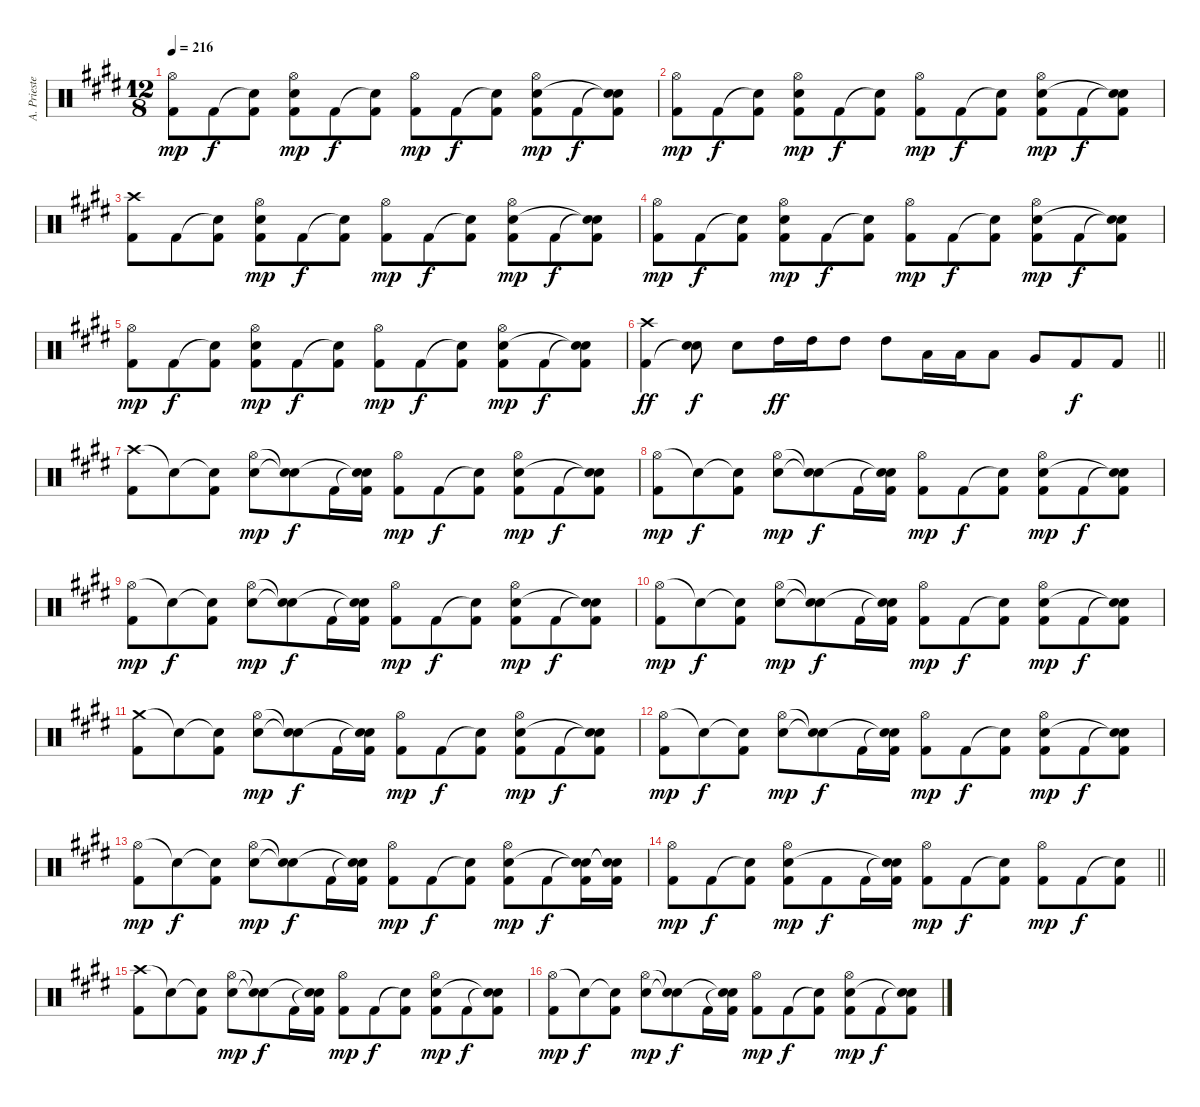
\track ("A. Priester" "A. Prieste") {instrument percussion}
\staff {score}
\articulation defaults
\ts (12 8)
\tempo 216
\clef neutral
\ks e
("Hi-Hat (open)" "Kick (hit) 2").8{dy mp} "Kick (hit) 2".8{dy f} ("Snare (hit)"{t} "Kick (hit) 2").8 ("Hi-Hat (open)" "Electric Snare (hit)" "Kick (hit) 2").8{dy mp} "Kick (hit) 2".8{dy f} ("Snare (hit)"{t} "Kick (hit) 2").8 ("Hi-Hat (open)" "Kick (hit) 2").8{dy mp} "Kick (hit) 2".8{dy f} ("Snare (hit)"{t} "Kick (hit) 2").8 ("Hi-Hat (open)" "Electric Snare (hit)" "Kick (hit) 2").8{dy mp} "Kick (hit) 2".8{dy f} ("Snare (hit)"{t} "Snare (hit)"{t} "Kick (hit) 2").8 |
("Hi-Hat (open)" "Kick (hit) 2").8{dy mp} "Kick (hit) 2".8{dy f} ("Snare (hit)"{t} "Kick (hit) 2").8 ("Hi-Hat (open)" "Electric Snare (hit)" "Kick (hit) 2").8{dy mp} "Kick (hit) 2".8{dy f} ("Snare (hit)"{t} "Kick (hit) 2").8 ("Hi-Hat (open)" "Kick (hit) 2").8{dy mp} "Kick (hit) 2".8{dy f} ("Snare (hit)"{t} "Kick (hit) 2").8 ("Hi-Hat (open)" "Electric Snare (hit)" "Kick (hit) 2").8{dy mp} "Kick (hit) 2".8{dy f} ("Snare (hit)"{t} "Snare (hit)"{t} "Kick (hit) 2").8 |
("Crash high (hit)" "Kick (hit) 2").8 "Kick (hit) 2".8 ("Snare (hit)"{t} "Kick (hit) 2").8 ("Hi-Hat (open)" "Electric Snare (hit)" "Kick (hit) 2").8{dy mp} "Kick (hit) 2".8{dy f} ("Snare (hit)"{t} "Kick (hit) 2").8 ("Hi-Hat (open)" "Kick (hit) 2").8{dy mp} "Kick (hit) 2".8{dy f} ("Snare (hit)"{t} "Kick (hit) 2").8 ("Hi-Hat (open)" "Electric Snare (hit)" "Kick (hit) 2").8{dy mp} "Kick (hit) 2".8{dy f} ("Snare (hit)"{t} "Snare (hit)"{t} "Kick (hit) 2").8 |
("Hi-Hat (open)" "Kick (hit) 2").8{dy mp} "Kick (hit) 2".8{dy f} ("Snare (hit)"{t} "Kick (hit) 2").8 ("Hi-Hat (open)" "Electric Snare (hit)" "Kick (hit) 2").8{dy mp} "Kick (hit) 2".8{dy f} ("Snare (hit)"{t} "Kick (hit) 2").8 ("Hi-Hat (open)" "Kick (hit) 2").8{dy mp} "Kick (hit) 2".8{dy f} ("Snare (hit)"{t} "Kick (hit) 2").8 ("Hi-Hat (open)" "Electric Snare (hit)" "Kick (hit) 2").8{dy mp} "Kick (hit) 2".8{dy f} ("Snare (hit)"{t} "Snare (hit)"{t} "Kick (hit) 2").8 |
("Hi-Hat (open)" "Kick (hit) 2").8{dy mp} "Kick (hit) 2".8{dy f} ("Snare (hit)"{t} "Kick (hit) 2").8 ("Hi-Hat (open)" "Electric Snare (hit)" "Kick (hit) 2").8{dy mp} "Kick (hit) 2".8{dy f} ("Snare (hit)"{t} "Kick (hit) 2").8 ("Hi-Hat (open)" "Kick (hit) 2").8{dy mp} "Kick (hit) 2".8{dy f} ("Snare (hit)"{t} "Kick (hit) 2").8 ("Hi-Hat (open)" "Electric Snare (hit)" "Kick (hit) 2").8{dy mp} "Kick (hit) 2".8{dy f} ("Snare (hit)"{t} "Snare (hit)"{t} "Kick (hit) 2").8 |
\barLineRight lightlight
("Crash high (hit)" "Kick (hit) 2").4{dy ff} ("Electric Snare (hit)" "Snare (hit)"{t}).8{dy f} "Electric Snare (hit)".8 "High Tom (hit)".16{dy ff} "High Tom (hit)".16 "High Tom (hit)".8 "High Tom (hit)".8 "Low Tom (hit)".16 "Low Tom (hit)".16 "Low Tom (hit)".8 "Very Low Tom (hit)".8 "Kick (hit) 2".8{dy f} "Kick (hit) 2".8 |
("Crash high (hit)" "Kick (hit) 2").8 "Snare (hit)"{t}.8 ("Snare (hit)"{t} "Kick (hit) 2").8 ("Hi-Hat (open)" "Electric Snare (hit)").8{dy mp} ("Snare (hit)"{t} "Snare (hit)"{t}).8{dy f} "Kick (hit) 2".16 ("Snare (hit)"{t} "Snare (hit)"{t} "Kick (hit) 2").16 ("Hi-Hat (open)" "Kick (hit) 2").8{dy mp} "Kick (hit) 2".8{dy f} ("Snare (hit)"{t} "Kick (hit) 2").8 ("Hi-Hat (open)" "Electric Snare (hit)" "Kick (hit) 2").8{dy mp} "Kick (hit) 2".8{dy f} ("Snare (hit)"{t} "Snare (hit)"{t} "Kick (hit) 2").8 |
("Hi-Hat (open)" "Kick (hit) 2").8{dy mp} "Snare (hit)"{t}.8{dy f} ("Snare (hit)"{t} "Kick (hit) 2").8 ("Hi-Hat (open)" "Electric Snare (hit)").8{dy mp} ("Snare (hit)"{t} "Snare (hit)"{t}).8{dy f} "Kick (hit) 2".16 ("Snare (hit)"{t} "Snare (hit)"{t} "Kick (hit) 2").16 ("Hi-Hat (open)" "Kick (hit) 2").8{dy mp} "Kick (hit) 2".8{dy f} ("Snare (hit)"{t} "Kick (hit) 2").8 ("Hi-Hat (open)" "Electric Snare (hit)" "Kick (hit) 2").8{dy mp} "Kick (hit) 2".8{dy f} ("Snare (hit)"{t} "Snare (hit)"{t} "Kick (hit) 2").8 |
("Hi-Hat (open)" "Kick (hit) 2").8{dy mp} "Snare (hit)"{t}.8{dy f} ("Snare (hit)"{t} "Kick (hit) 2").8 ("Hi-Hat (open)" "Electric Snare (hit)").8{dy mp} ("Snare (hit)"{t} "Snare (hit)"{t}).8{dy f} "Kick (hit) 2".16 ("Snare (hit)"{t} "Snare (hit)"{t} "Kick (hit) 2").16 ("Hi-Hat (open)" "Kick (hit) 2").8{dy mp} "Kick (hit) 2".8{dy f} ("Snare (hit)"{t} "Kick (hit) 2").8 ("Hi-Hat (open)" "Electric Snare (hit)" "Kick (hit) 2").8{dy mp} "Kick (hit) 2".8{dy f} ("Snare (hit)"{t} "Snare (hit)"{t} "Kick (hit) 2").8 |
("Hi-Hat (open)" "Kick (hit) 2").8{dy mp} "Snare (hit)"{t}.8{dy f} ("Snare (hit)"{t} "Kick (hit) 2").8 ("Hi-Hat (open)" "Electric Snare (hit)").8{dy mp} ("Snare (hit)"{t} "Snare (hit)"{t}).8{dy f} "Kick (hit) 2".16 ("Snare (hit)"{t} "Snare (hit)"{t} "Kick (hit) 2").16 ("Hi-Hat (open)" "Kick (hit) 2").8{dy mp} "Kick (hit) 2".8{dy f} ("Snare (hit)"{t} "Kick (hit) 2").8 ("Hi-Hat (open)" "Electric Snare (hit)" "Kick (hit) 2").8{dy mp} "Kick (hit) 2".8{dy f} ("Snare (hit)"{t} "Snare (hit)"{t} "Kick (hit) 2").8 |
("Crash medium (hit)" "Kick (hit) 2").8 "Snare (hit)"{t}.8 ("Snare (hit)"{t} "Kick (hit) 2").8 ("Hi-Hat (open)" "Electric Snare (hit)").8{dy mp} ("Snare (hit)"{t} "Snare (hit)"{t}).8{dy f} "Kick (hit) 2".16 ("Snare (hit)"{t} "Snare (hit)"{t} "Kick (hit) 2").16 ("Hi-Hat (open)" "Kick (hit) 2").8{dy mp} "Kick (hit) 2".8{dy f} ("Snare (hit)"{t} "Kick (hit) 2").8 ("Hi-Hat (open)" "Electric Snare (hit)" "Kick (hit) 2").8{dy mp} "Kick (hit) 2".8{dy f} ("Snare (hit)"{t} "Snare (hit)"{t} "Kick (hit) 2").8 |
("Hi-Hat (open)" "Kick (hit) 2").8{dy mp} "Snare (hit)"{t}.8{dy f} ("Snare (hit)"{t} "Kick (hit) 2").8 ("Hi-Hat (open)" "Electric Snare (hit)").8{dy mp} ("Snare (hit)"{t} "Snare (hit)"{t}).8{dy f} "Kick (hit) 2".16 ("Snare (hit)"{t} "Snare (hit)"{t} "Kick (hit) 2").16 ("Hi-Hat (open)" "Kick (hit) 2").8{dy mp} "Kick (hit) 2".8{dy f} ("Snare (hit)"{t} "Kick (hit) 2").8 ("Hi-Hat (open)" "Electric Snare (hit)" "Kick (hit) 2").8{dy mp} "Kick (hit) 2".8{dy f} ("Snare (hit)"{t} "Snare (hit)"{t} "Kick (hit) 2").8 |
("Hi-Hat (open)" "Kick (hit) 2").8{dy mp} "Snare (hit)"{t}.8{dy f} ("Snare (hit)"{t} "Kick (hit) 2").8 ("Hi-Hat (open)" "Electric Snare (hit)").8{dy mp} ("Snare (hit)"{t} "Snare (hit)"{t}).8{dy f} "Kick (hit) 2".16 ("Snare (hit)"{t} "Snare (hit)"{t} "Kick (hit) 2").16 ("Hi-Hat (open)" "Kick (hit) 2").8{dy mp} "Kick (hit) 2".8{dy f} ("Snare (hit)"{t} "Kick (hit) 2").8 ("Hi-Hat (open)" "Electric Snare (hit)" "Kick (hit) 2").8{dy mp} "Kick (hit) 2".8{dy f} ("Snare (hit)"{t} "Snare (hit)"{t} "Kick (hit) 2").16 ("Snare (hit)"{t} "Snare (hit)"{t} "Kick (hit) 2").16 |
\barLineRight lightlight
("Hi-Hat (open)" "Kick (hit) 2").8{dy mp} "Kick (hit) 2".8{dy f} ("Snare (hit)"{t} "Kick (hit) 2").8 ("Hi-Hat (open)" "Electric Snare (hit)" "Kick (hit) 2").8{dy mp} "Kick (hit) 2".8{dy f} "Kick (hit) 2".16 ("Snare (hit)"{t} "Snare (hit)"{t} "Kick (hit) 2").16 ("Hi-Hat (open)" "Kick (hit) 2").8{dy mp} "Kick (hit) 2".8{dy f} ("Snare (hit)"{t} "Kick (hit) 2").8 ("Hi-Hat (open)" "Kick (hit) 2").8{dy mp} "Kick (hit) 2".8{dy f} ("Snare (hit)"{t} "Kick (hit) 2").8 |
("Crash high (hit)" "Kick (hit) 2").8 "Snare (hit)"{t}.8 ("Snare (hit)"{t} "Kick (hit) 2").8 ("Hi-Hat (open)" "Electric Snare (hit)").8{dy mp} ("Snare (hit)"{t} "Snare (hit)"{t}).8{dy f} "Kick (hit) 2".16 ("Snare (hit)"{t} "Snare (hit)"{t} "Kick (hit) 2").16 ("Hi-Hat (open)" "Kick (hit) 2").8{dy mp} "Kick (hit) 2".8{dy f} ("Snare (hit)"{t} "Kick (hit) 2").8 ("Hi-Hat (open)" "Electric Snare (hit)" "Kick (hit) 2").8{dy mp} "Kick (hit) 2".8{dy f} ("Snare (hit)"{t} "Snare (hit)"{t} "Kick (hit) 2").8 |
("Hi-Hat (open)" "Kick (hit) 2").8{dy mp} "Snare (hit)"{t}.8{dy f} ("Snare (hit)"{t} "Kick (hit) 2").8 ("Hi-Hat (open)" "Electric Snare (hit)").8{dy mp} ("Snare (hit)"{t} "Snare (hit)"{t}).8{dy f} "Kick (hit) 2".16 ("Snare (hit)"{t} "Snare (hit)"{t} "Kick (hit) 2").16 ("Hi-Hat (open)" "Kick (hit) 2").8{dy mp} "Kick (hit) 2".8{dy f} ("Snare (hit)"{t} "Kick (hit) 2").8 ("Hi-Hat (open)" "Electric Snare (hit)" "Kick (hit) 2").8{dy mp} "Kick (hit) 2".8{dy f} ("Snare (hit)"{t} "Snare (hit)"{t} "Kick (hit) 2").8
